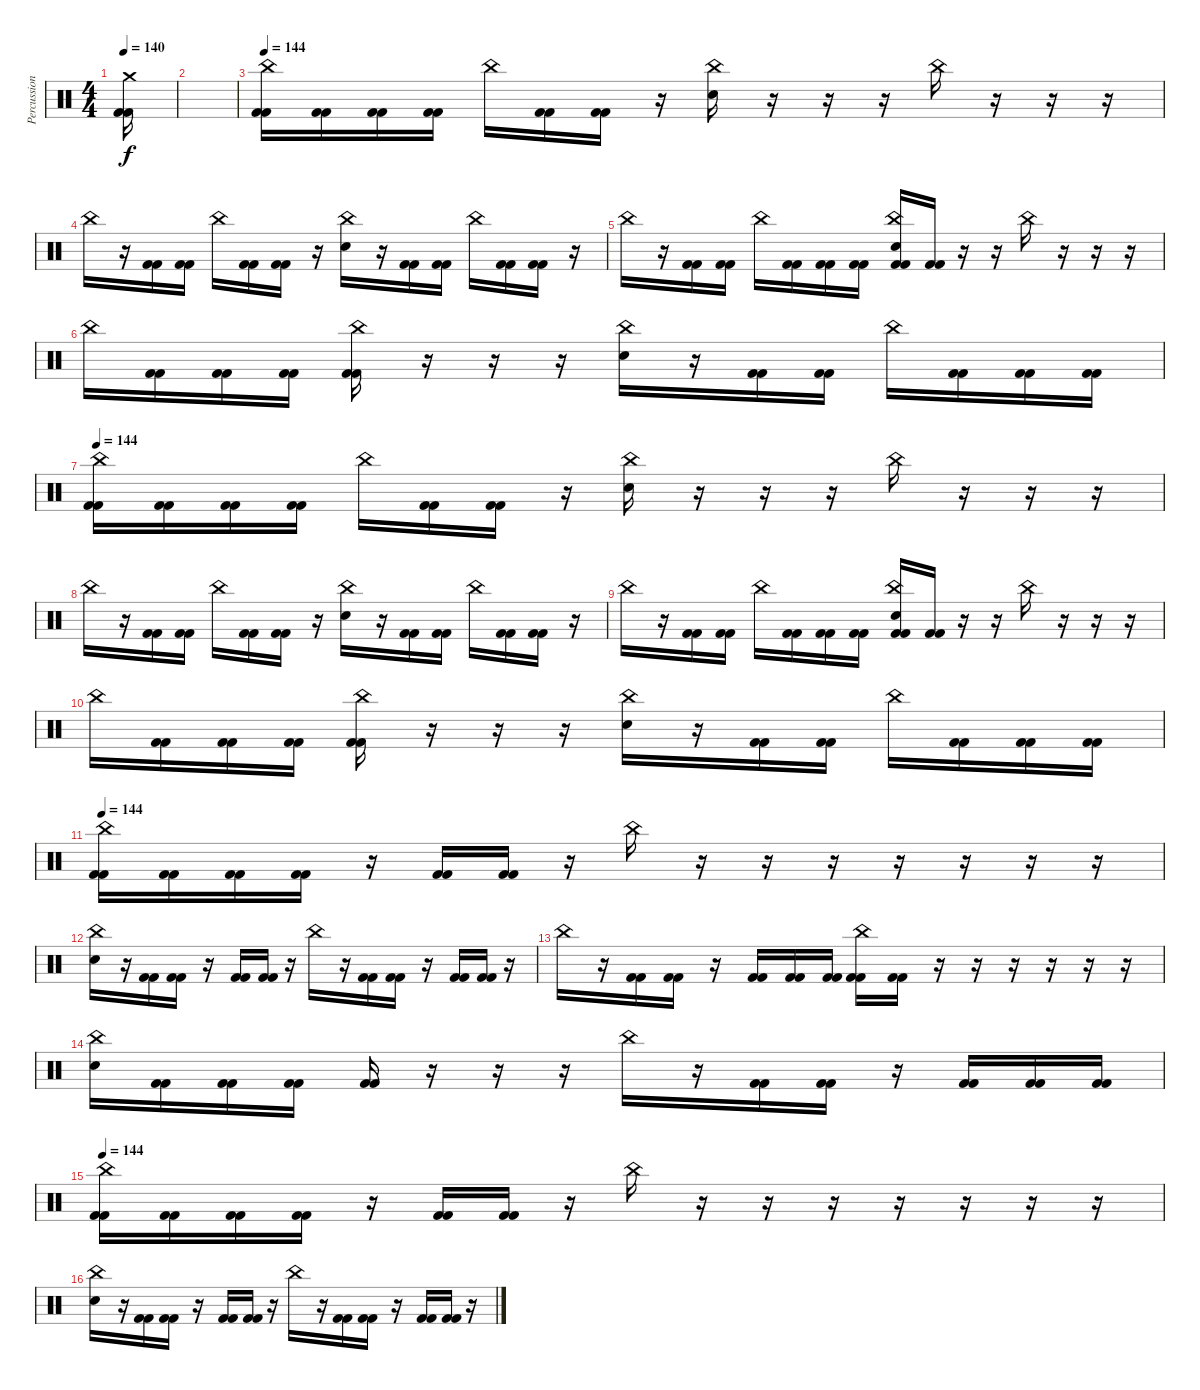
\track ("Percussion" "Percussion") {instrument percussion}
\staff {score}
\articulation defaults
\ts (4 4)
\tempo 140
\clef neutral
\ks c
("Crash medium (hit)" "Kick (hit) 2" "Kick (hit) 2").16{dy f} |
|
\tempo 144
("China (hit)" "Kick (hit) 2" "Kick (hit) 2").16 ("Kick (hit) 2" "Kick (hit) 2").16 ("Kick (hit) 2" "Kick (hit) 2").16 ("Kick (hit) 2" "Kick (hit) 2").16 "China (hit)".16 ("Kick (hit) 2" "Kick (hit) 2").16 ("Kick (hit) 2" "Kick (hit) 2").16 r.16 ("China (hit)" "Electric Snare (hit)").16 r.16 r.16 r.16 "China (hit)".16 r.16 r.16 r.16 |
"China (hit)".16 r.16 ("Kick (hit) 2" "Kick (hit) 2").16 ("Kick (hit) 2" "Kick (hit) 2").16 "China (hit)".16 ("Kick (hit) 2" "Kick (hit) 2").16 ("Kick (hit) 2" "Kick (hit) 2").16 r.16 ("China (hit)" "Electric Snare (hit)").16 r.16 ("Kick (hit) 2" "Kick (hit) 2").16 ("Kick (hit) 2" "Kick (hit) 2").16 "China (hit)".16 ("Kick (hit) 2" "Kick (hit) 2").16 ("Kick (hit) 2" "Kick (hit) 2").16 r.16 |
"China (hit)".16 r.16 ("Kick (hit) 2" "Kick (hit) 2").16 ("Kick (hit) 2" "Kick (hit) 2").16 "China (hit)".16 ("Kick (hit) 2" "Kick (hit) 2").16 ("Kick (hit) 2" "Kick (hit) 2").16 ("Kick (hit) 2" "Kick (hit) 2").16 ("China (hit)" "Electric Snare (hit)" "Kick (hit) 2" "Kick (hit) 2").16 ("Kick (hit) 2" "Kick (hit) 2").16 r.16 r.16 "China (hit)".16 r.16 r.16 r.16 |
"China (hit)".16 ("Kick (hit) 2" "Kick (hit) 2").16 ("Kick (hit) 2" "Kick (hit) 2").16 ("Kick (hit) 2" "Kick (hit) 2").16 ("China (hit)" "Kick (hit) 2" "Kick (hit) 2").16 r.16 r.16 r.16 ("China (hit)" "Electric Snare (hit)").16 r.16 ("Kick (hit) 2" "Kick (hit) 2").16 ("Kick (hit) 2" "Kick (hit) 2").16 "China (hit)".16 ("Kick (hit) 2" "Kick (hit) 2").16 ("Kick (hit) 2" "Kick (hit) 2").16 ("Kick (hit) 2" "Kick (hit) 2").16 |
\tempo 144
("China (hit)" "Kick (hit) 2" "Kick (hit) 2").16 ("Kick (hit) 2" "Kick (hit) 2").16 ("Kick (hit) 2" "Kick (hit) 2").16 ("Kick (hit) 2" "Kick (hit) 2").16 "China (hit)".16 ("Kick (hit) 2" "Kick (hit) 2").16 ("Kick (hit) 2" "Kick (hit) 2").16 r.16 ("China (hit)" "Electric Snare (hit)").16 r.16 r.16 r.16 "China (hit)".16 r.16 r.16 r.16 |
"China (hit)".16 r.16 ("Kick (hit) 2" "Kick (hit) 2").16 ("Kick (hit) 2" "Kick (hit) 2").16 "China (hit)".16 ("Kick (hit) 2" "Kick (hit) 2").16 ("Kick (hit) 2" "Kick (hit) 2").16 r.16 ("China (hit)" "Electric Snare (hit)").16 r.16 ("Kick (hit) 2" "Kick (hit) 2").16 ("Kick (hit) 2" "Kick (hit) 2").16 "China (hit)".16 ("Kick (hit) 2" "Kick (hit) 2").16 ("Kick (hit) 2" "Kick (hit) 2").16 r.16 |
"China (hit)".16 r.16 ("Kick (hit) 2" "Kick (hit) 2").16 ("Kick (hit) 2" "Kick (hit) 2").16 "China (hit)".16 ("Kick (hit) 2" "Kick (hit) 2").16 ("Kick (hit) 2" "Kick (hit) 2").16 ("Kick (hit) 2" "Kick (hit) 2").16 ("China (hit)" "Electric Snare (hit)" "Kick (hit) 2" "Kick (hit) 2").16 ("Kick (hit) 2" "Kick (hit) 2").16 r.16 r.16 "China (hit)".16 r.16 r.16 r.16 |
"China (hit)".16 ("Kick (hit) 2" "Kick (hit) 2").16 ("Kick (hit) 2" "Kick (hit) 2").16 ("Kick (hit) 2" "Kick (hit) 2").16 ("China (hit)" "Kick (hit) 2" "Kick (hit) 2").16 r.16 r.16 r.16 ("China (hit)" "Electric Snare (hit)").16 r.16 ("Kick (hit) 2" "Kick (hit) 2").16 ("Kick (hit) 2" "Kick (hit) 2").16 "China (hit)".16 ("Kick (hit) 2" "Kick (hit) 2").16 ("Kick (hit) 2" "Kick (hit) 2").16 ("Kick (hit) 2" "Kick (hit) 2").16 |
\tempo 144
("China (hit)" "Kick (hit) 2" "Kick (hit) 2").16 ("Kick (hit) 2" "Kick (hit) 2").16 ("Kick (hit) 2" "Kick (hit) 2").16 ("Kick (hit) 2" "Kick (hit) 2").16 r.16 ("Kick (hit) 2" "Kick (hit) 2").16 ("Kick (hit) 2" "Kick (hit) 2").16 r.16 "China (hit)".16 r.16 r.16 r.16 r.16 r.16 r.16 r.16 |
("China (hit)" "Electric Snare (hit)").16 r.16 ("Kick (hit) 2" "Kick (hit) 2").16 ("Kick (hit) 2" "Kick (hit) 2").16 r.16 ("Kick (hit) 2" "Kick (hit) 2").16 ("Kick (hit) 2" "Kick (hit) 2").16 r.16 "China (hit)".16 r.16 ("Kick (hit) 2" "Kick (hit) 2").16 ("Kick (hit) 2" "Kick (hit) 2").16 r.16 ("Kick (hit) 2" "Kick (hit) 2").16 ("Kick (hit) 2" "Kick (hit) 2").16 r.16 |
"China (hit)".16 r.16 ("Kick (hit) 2" "Kick (hit) 2").16 ("Kick (hit) 2" "Kick (hit) 2").16 r.16 ("Kick (hit) 2" "Kick (hit) 2").16 ("Kick (hit) 2" "Kick (hit) 2").16 ("Kick (hit) 2" "Kick (hit) 2").16 ("China (hit)" "Kick (hit) 2" "Kick (hit) 2").16 ("Kick (hit) 2" "Kick (hit) 2").16 r.16 r.16 r.16 r.16 r.16 r.16 |
("China (hit)" "Electric Snare (hit)").16 ("Kick (hit) 2" "Kick (hit) 2").16 ("Kick (hit) 2" "Kick (hit) 2").16 ("Kick (hit) 2" "Kick (hit) 2").16 ("Kick (hit) 2" "Kick (hit) 2").16 r.16 r.16 r.16 "China (hit)".16 r.16 ("Kick (hit) 2" "Kick (hit) 2").16 ("Kick (hit) 2" "Kick (hit) 2").16 r.16 ("Kick (hit) 2" "Kick (hit) 2").16 ("Kick (hit) 2" "Kick (hit) 2").16 ("Kick (hit) 2" "Kick (hit) 2").16 |
\tempo 144
("China (hit)" "Kick (hit) 2" "Kick (hit) 2").16 ("Kick (hit) 2" "Kick (hit) 2").16 ("Kick (hit) 2" "Kick (hit) 2").16 ("Kick (hit) 2" "Kick (hit) 2").16 r.16 ("Kick (hit) 2" "Kick (hit) 2").16 ("Kick (hit) 2" "Kick (hit) 2").16 r.16 "China (hit)".16 r.16 r.16 r.16 r.16 r.16 r.16 r.16 |
("China (hit)" "Electric Snare (hit)").16 r.16 ("Kick (hit) 2" "Kick (hit) 2").16 ("Kick (hit) 2" "Kick (hit) 2").16 r.16 ("Kick (hit) 2" "Kick (hit) 2").16 ("Kick (hit) 2" "Kick (hit) 2").16 r.16 "China (hit)".16 r.16 ("Kick (hit) 2" "Kick (hit) 2").16 ("Kick (hit) 2" "Kick (hit) 2").16 r.16 ("Kick (hit) 2" "Kick (hit) 2").16 ("Kick (hit) 2" "Kick (hit) 2").16 r.16
